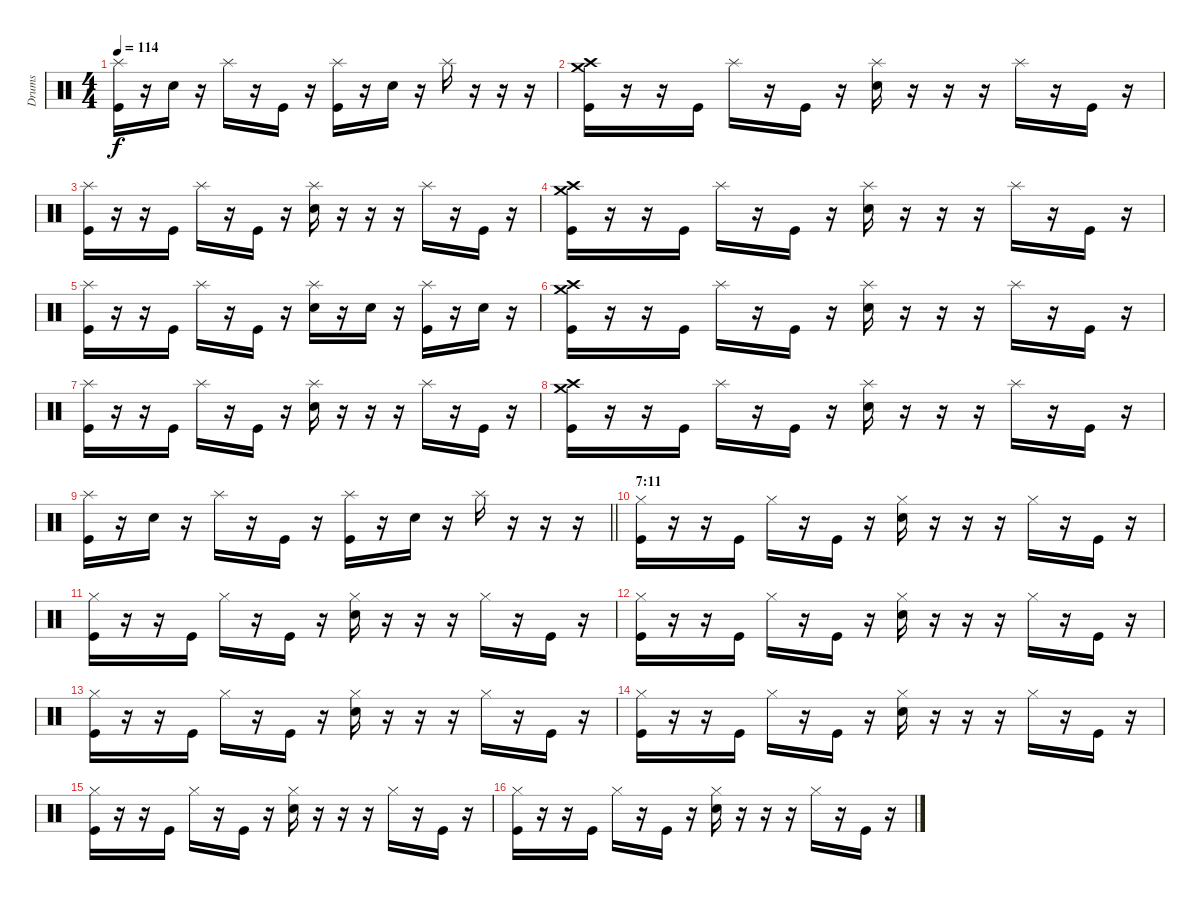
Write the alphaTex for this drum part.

\track ("Drums" "Drums") {instrument percussion}
\staff {score}
\articulation defaults
\ts (4 4)
\tempo 114
\clef neutral
\ks c
("Splash (hit)" "Kick (hit)").16{dy f} r.16 "Snare (hit) 2".16 r.16 "Splash (hit)".16 r.16 "Kick (hit)".16 r.16 ("Splash (hit)" "Kick (hit)").16 r.16 "Snare (hit) 2".16 r.16 "Splash (hit)".16 r.16 r.16 r.16 |
("Crash medium (hit)" "Crash high (hit)" "Kick (hit)").16 r.16 r.16 "Kick (hit)".16 "Splash (hit)".16 r.16 "Kick (hit)".16 r.16 ("Splash (hit)" "Snare (hit) 2").16 r.16 r.16 r.16 "Splash (hit)".16 r.16 "Kick (hit)".16 r.16 |
("Splash (hit)" "Kick (hit)").16 r.16 r.16 "Kick (hit)".16 "Splash (hit)".16 r.16 "Kick (hit)".16 r.16 ("Splash (hit)" "Snare (hit) 2").16 r.16 r.16 r.16 "Splash (hit)".16 r.16 "Kick (hit)".16 r.16 |
("Crash medium (hit)" "Crash high (hit)" "Kick (hit)").16 r.16 r.16 "Kick (hit)".16 "Splash (hit)".16 r.16 "Kick (hit)".16 r.16 ("Splash (hit)" "Snare (hit) 2").16 r.16 r.16 r.16 "Splash (hit)".16 r.16 "Kick (hit)".16 r.16 |
("Splash (hit)" "Kick (hit)").16 r.16 r.16 "Kick (hit)".16 "Splash (hit)".16 r.16 "Kick (hit)".16 r.16 ("Splash (hit)" "Snare (hit) 2").16 r.16 "Snare (hit) 2".16 r.16 ("Splash (hit)" "Kick (hit)").16 r.16 "Snare (hit) 2".16 r.16 |
("Crash medium (hit)" "Crash high (hit)" "Kick (hit)").16 r.16 r.16 "Kick (hit)".16 "Splash (hit)".16 r.16 "Kick (hit)".16 r.16 ("Splash (hit)" "Snare (hit) 2").16 r.16 r.16 r.16 "Splash (hit)".16 r.16 "Kick (hit)".16 r.16 |
("Splash (hit)" "Kick (hit)").16 r.16 r.16 "Kick (hit)".16 "Splash (hit)".16 r.16 "Kick (hit)".16 r.16 ("Splash (hit)" "Snare (hit) 2").16 r.16 r.16 r.16 "Splash (hit)".16 r.16 "Kick (hit)".16 r.16 |
("Crash medium (hit)" "Crash high (hit)" "Kick (hit)").16 r.16 r.16 "Kick (hit)".16 "Splash (hit)".16 r.16 "Kick (hit)".16 r.16 ("Splash (hit)" "Snare (hit) 2").16 r.16 r.16 r.16 "Splash (hit)".16 r.16 "Kick (hit)".16 r.16 |
\barLineRight lightlight
("Splash (hit)" "Kick (hit)").16 r.16 "Snare (hit) 2".16 r.16 "Splash (hit)".16 r.16 "Kick (hit)".16 r.16 ("Splash (hit)" "Kick (hit)").16 r.16 "Snare (hit) 2".16 r.16 "Splash (hit)".16 r.16 r.16 r.16 |
\section ("" "7:11")
("Hi-Hat (closed)" "Kick (hit)").16 r.16 r.16 "Kick (hit)".16 "Hi-Hat (closed)".16 r.16 "Kick (hit)".16 r.16 ("Hi-Hat (closed)" "Snare (hit) 2").16 r.16 r.16 r.16 "Hi-Hat (closed)".16 r.16 "Kick (hit)".16 r.16 |
("Hi-Hat (closed)" "Kick (hit)").16 r.16 r.16 "Kick (hit)".16 "Hi-Hat (closed)".16 r.16 "Kick (hit)".16 r.16 ("Hi-Hat (closed)" "Snare (hit) 2").16 r.16 r.16 r.16 "Hi-Hat (closed)".16 r.16 "Kick (hit)".16 r.16 |
("Hi-Hat (closed)" "Kick (hit)").16 r.16 r.16 "Kick (hit)".16 "Hi-Hat (closed)".16 r.16 "Kick (hit)".16 r.16 ("Hi-Hat (closed)" "Snare (hit) 2").16 r.16 r.16 r.16 "Hi-Hat (closed)".16 r.16 "Kick (hit)".16 r.16 |
("Hi-Hat (closed)" "Kick (hit)").16 r.16 r.16 "Kick (hit)".16 "Hi-Hat (closed)".16 r.16 "Kick (hit)".16 r.16 ("Hi-Hat (closed)" "Snare (hit) 2").16 r.16 r.16 r.16 "Hi-Hat (closed)".16 r.16 "Kick (hit)".16 r.16 |
("Hi-Hat (closed)" "Kick (hit)").16 r.16 r.16 "Kick (hit)".16 "Hi-Hat (closed)".16 r.16 "Kick (hit)".16 r.16 ("Hi-Hat (closed)" "Snare (hit) 2").16 r.16 r.16 r.16 "Hi-Hat (closed)".16 r.16 "Kick (hit)".16 r.16 |
("Hi-Hat (closed)" "Kick (hit)").16 r.16 r.16 "Kick (hit)".16 "Hi-Hat (closed)".16 r.16 "Kick (hit)".16 r.16 ("Hi-Hat (closed)" "Snare (hit) 2").16 r.16 r.16 r.16 "Hi-Hat (closed)".16 r.16 "Kick (hit)".16 r.16 |
("Hi-Hat (closed)" "Kick (hit)").16 r.16 r.16 "Kick (hit)".16 "Hi-Hat (closed)".16 r.16 "Kick (hit)".16 r.16 ("Hi-Hat (closed)" "Snare (hit) 2").16 r.16 r.16 r.16 "Hi-Hat (closed)".16 r.16 "Kick (hit)".16 r.16
